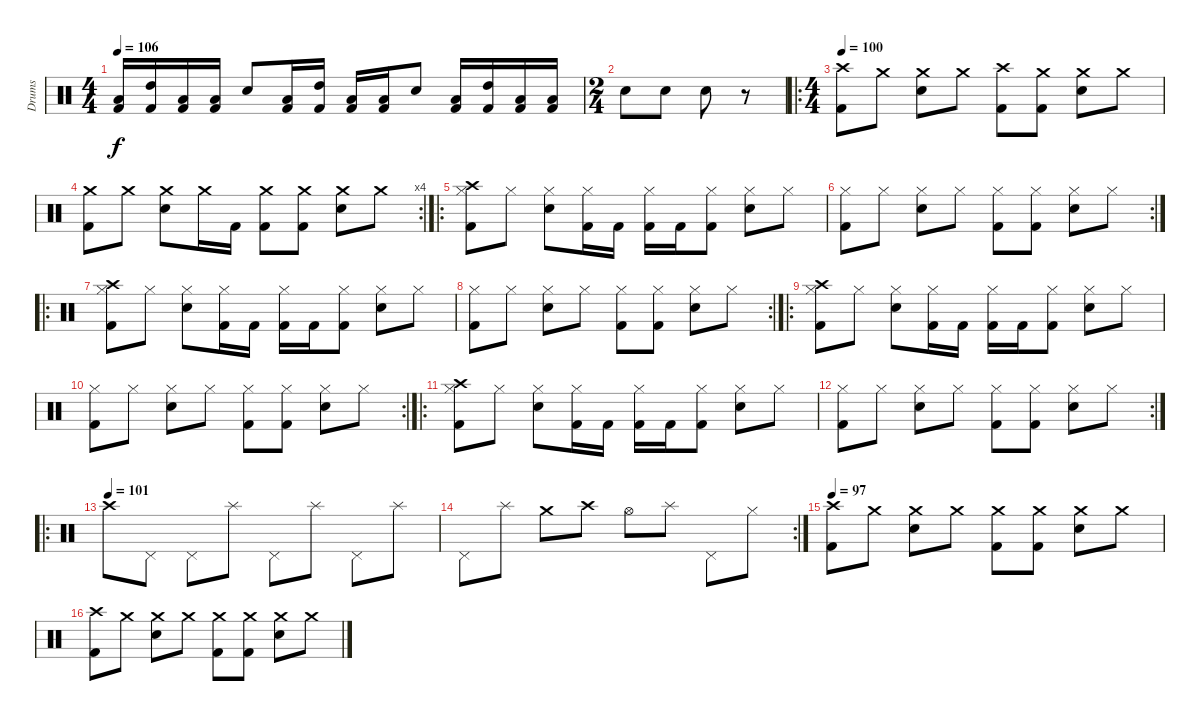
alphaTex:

\track ("Drums" "Drums") {instrument percussion}
\staff {score}
\articulation defaults
\ts (4 4)
\tempo 106
\tempo 120
\tempo 106
\clef neutral
\ks c
("Low Tom (hit)" "Kick (hit) 2").16{dy f} ("High Tom (hit)" "Kick (hit) 2").16 ("Low Tom (hit)" "Kick (hit) 2").16 ("Low Tom (hit)" "Kick (hit) 2").16 "Electric Snare (hit)".8 ("Low Tom (hit)" "Kick (hit) 2").16 ("High Tom (hit)" "Kick (hit) 2").16 ("Low Tom (hit)" "Kick (hit) 2").16 ("Low Tom (hit)" "Kick (hit) 2").16 "Electric Snare (hit)".8 ("Low Tom (hit)" "Kick (hit) 2").16 ("High Tom (hit)" "Kick (hit) 2").16 ("Low Tom (hit)" "Kick (hit) 2").16 ("Low Tom (hit)" "Kick (hit) 2").16 |
\ts (2 4)
"Electric Snare (hit)".8 "Electric Snare (hit)".8 "Electric Snare (hit)".8 r.8 |
\ro
\ts (4 4)
\tempo 100
("Crash high (hit)" "Kick (hit) 2").8 "Crash medium (hit)".8 ("Crash medium (hit)" "Electric Snare (hit)").8 "Crash medium (hit)".8 ("Crash high (hit)" "Kick (hit) 2").8 ("Crash medium (hit)" "Kick (hit) 2").8 ("Crash medium (hit)" "Electric Snare (hit)").8 "Crash medium (hit)".8 |
\rc 4
("Crash medium (hit)" "Kick (hit) 2").8 "Crash medium (hit)".8 ("Crash medium (hit)" "Electric Snare (hit)").8 "Crash medium (hit)".16 "Kick (hit) 2".16 ("Crash medium (hit)" "Kick (hit) 2").8 ("Crash medium (hit)" "Kick (hit) 2").8 ("Crash medium (hit)" "Electric Snare (hit)").8 "Crash medium (hit)".8 |
\ro
("Hi-Hat (closed)" "Crash high (hit)" "Kick (hit) 2").8 "Hi-Hat (closed)".8 ("Hi-Hat (closed)" "Electric Snare (hit)").8 ("Hi-Hat (closed)" "Kick (hit) 2").16 "Kick (hit) 2".16 ("Hi-Hat (closed)" "Kick (hit) 2").16 "Kick (hit) 2".16 ("Hi-Hat (closed)" "Kick (hit) 2").8 ("Hi-Hat (closed)" "Electric Snare (hit)").8 "Hi-Hat (closed)".8 |
\rc 2
("Hi-Hat (closed)" "Kick (hit) 2").8 "Hi-Hat (closed)".8 ("Hi-Hat (closed)" "Electric Snare (hit)").8 "Hi-Hat (closed)".8 ("Hi-Hat (closed)" "Kick (hit) 2").8 ("Hi-Hat (closed)" "Kick (hit) 2").8 ("Hi-Hat (closed)" "Electric Snare (hit)").8 "Hi-Hat (closed)".8 |
\ro
("Hi-Hat (closed)" "Crash high (hit)" "Kick (hit) 2").8 "Hi-Hat (closed)".8 ("Hi-Hat (closed)" "Electric Snare (hit)").8 ("Hi-Hat (closed)" "Kick (hit) 2").16 "Kick (hit) 2".16 ("Hi-Hat (closed)" "Kick (hit) 2").16 "Kick (hit) 2".16 ("Hi-Hat (closed)" "Kick (hit) 2").8 ("Hi-Hat (closed)" "Electric Snare (hit)").8 "Hi-Hat (closed)".8 |
\rc 2
("Hi-Hat (closed)" "Kick (hit) 2").8 "Hi-Hat (closed)".8 ("Hi-Hat (closed)" "Electric Snare (hit)").8 "Hi-Hat (closed)".8 ("Hi-Hat (closed)" "Kick (hit) 2").8 ("Hi-Hat (closed)" "Kick (hit) 2").8 ("Hi-Hat (closed)" "Electric Snare (hit)").8 "Hi-Hat (closed)".8 |
\ro
("Hi-Hat (closed)" "Crash high (hit)" "Kick (hit) 2").8 "Hi-Hat (closed)".8 ("Hi-Hat (closed)" "Electric Snare (hit)").8 ("Hi-Hat (closed)" "Kick (hit) 2").16 "Kick (hit) 2".16 ("Hi-Hat (closed)" "Kick (hit) 2").16 "Kick (hit) 2".16 ("Hi-Hat (closed)" "Kick (hit) 2").8 ("Hi-Hat (closed)" "Electric Snare (hit)").8 "Hi-Hat (closed)".8 |
\rc 2
("Hi-Hat (closed)" "Kick (hit) 2").8 "Hi-Hat (closed)".8 ("Hi-Hat (closed)" "Electric Snare (hit)").8 "Hi-Hat (closed)".8 ("Hi-Hat (closed)" "Kick (hit) 2").8 ("Hi-Hat (closed)" "Kick (hit) 2").8 ("Hi-Hat (closed)" "Electric Snare (hit)").8 "Hi-Hat (closed)".8 |
\ro
("Hi-Hat (closed)" "Crash high (hit)" "Kick (hit) 2").8 "Hi-Hat (closed)".8 ("Hi-Hat (closed)" "Electric Snare (hit)").8 ("Hi-Hat (closed)" "Kick (hit) 2").16 "Kick (hit) 2".16 ("Hi-Hat (closed)" "Kick (hit) 2").16 "Kick (hit) 2".16 ("Hi-Hat (closed)" "Kick (hit) 2").8 ("Hi-Hat (closed)" "Electric Snare (hit)").8 "Hi-Hat (closed)".8 |
\rc 2
("Hi-Hat (closed)" "Kick (hit) 2").8 "Hi-Hat (closed)".8 ("Hi-Hat (closed)" "Electric Snare (hit)").8 "Hi-Hat (closed)".8 ("Hi-Hat (closed)" "Kick (hit) 2").8 ("Hi-Hat (closed)" "Kick (hit) 2").8 ("Hi-Hat (closed)" "Electric Snare (hit)").8 "Hi-Hat (closed)".8 |
\ro
\tempo (101)
"Crash high (hit)".8 "Pedal Hi-Hat (hit)".8 "Pedal Hi-Hat (hit)".8 "Splash (hit)".8 "Pedal Hi-Hat (hit)".8 "Splash (hit)".8 "Pedal Hi-Hat (hit)".8 "Splash (hit)".8 |
\rc 2 "Pedal Hi-Hat (hit)".8 "Splash (hit)".8 "Crash medium (hit)".8 "Crash high (hit)".8 "Hi-Hat (open)".8 "Splash (hit)".8 "Pedal Hi-Hat (hit)".8 "Hi-Hat (closed)".8
|
\tempo 97
("Crash high (hit)" "Kick (hit) 2").8 "Crash medium (hit)".8 ("Crash medium (hit)" "Electric Snare (hit)").8 "Crash medium (hit)".8 ("Crash medium (hit)" "Kick (hit) 2").8 ("Crash medium (hit)" "Kick (hit) 2").8 ("Crash medium (hit)" "Electric Snare (hit)").8 "Crash medium (hit)".8 |
("Crash high (hit)" "Kick (hit) 2").8 "Crash medium (hit)".8 ("Crash medium (hit)" "Electric Snare (hit)").8 "Crash medium (hit)".8 ("Crash medium (hit)" "Kick (hit) 2").8 ("Crash medium (hit)" "Kick (hit) 2").8 ("Crash medium (hit)" "Electric Snare (hit)").8 "Crash medium (hit)".8
